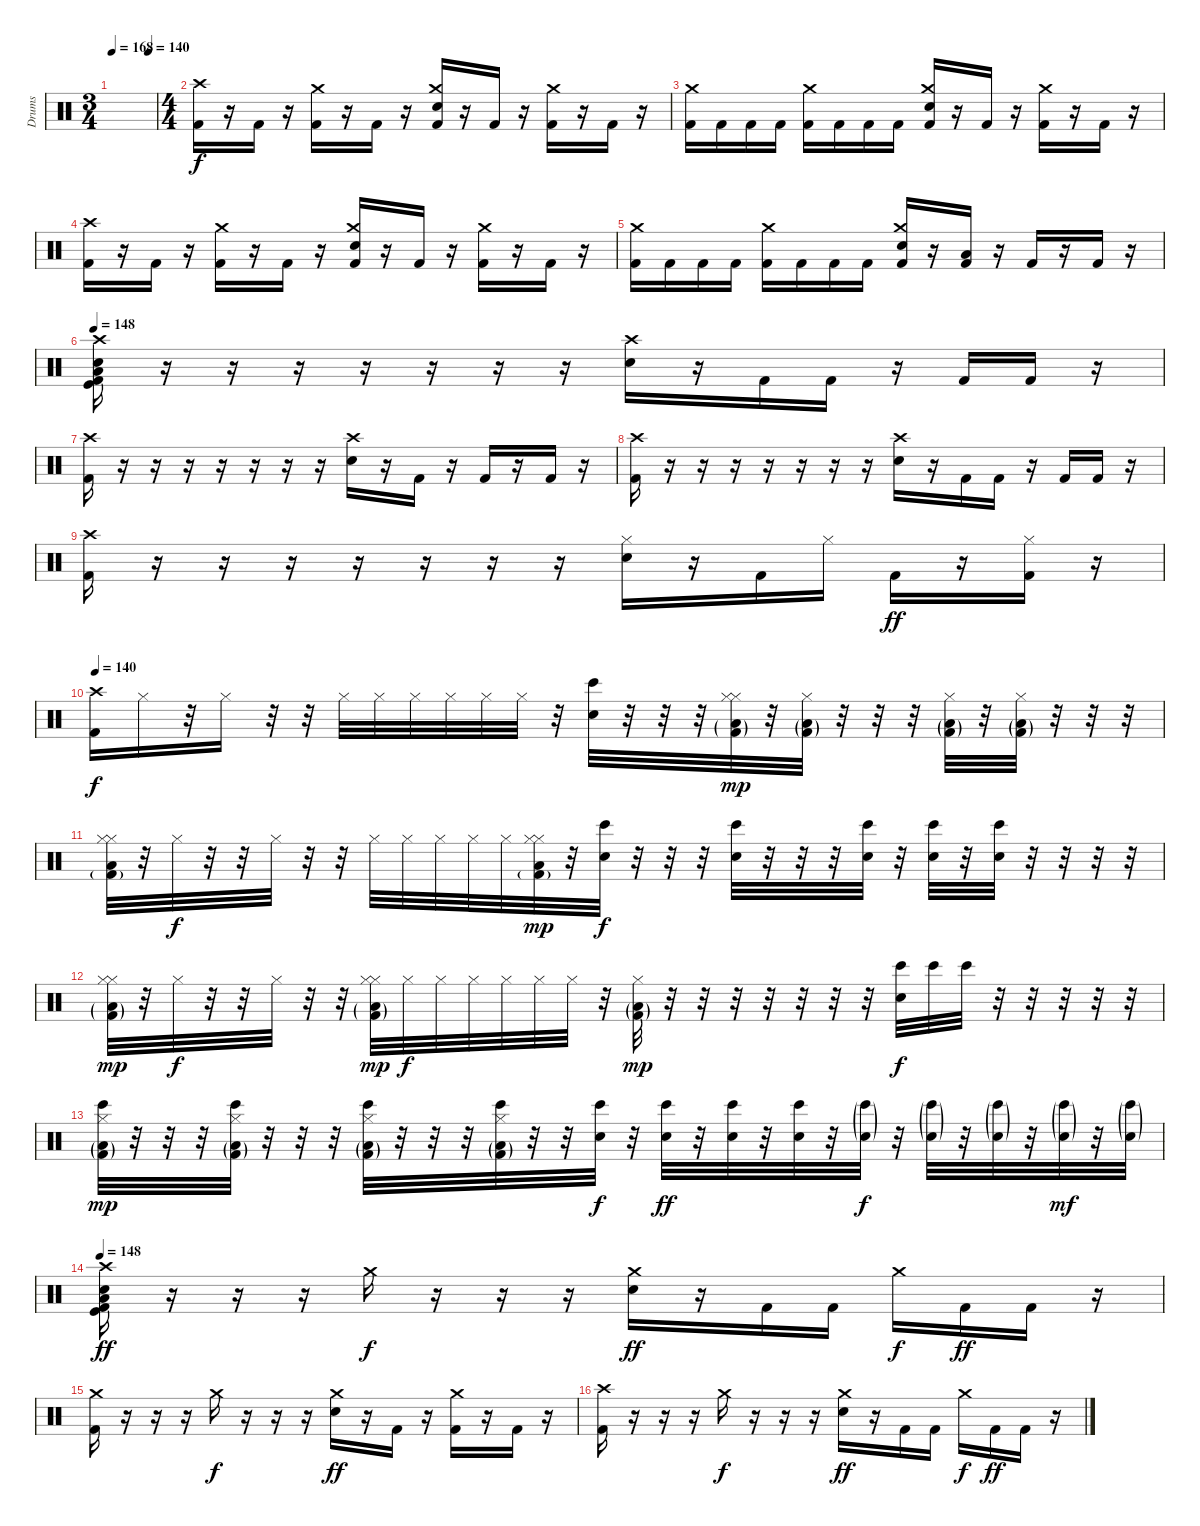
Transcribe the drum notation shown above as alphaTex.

\track ("Drums" "Drums") {instrument percussion}
\staff {score}
\articulation defaults
\ts (3 4)
\tempo 168
\tempo (140 0.8333333333333334)
\clef neutral
\ks c
|
\ts (4 4)
("Crash high (hit)" "Kick (hit) 2").16 r.16 "Kick (hit) 2".16 r.16 ("Crash medium (hit)" "Kick (hit) 2").16 r.16 "Kick (hit) 2".16 r.16 ("Crash medium (hit)" "Electric Snare (hit)" "Kick (hit) 2").16 r.16 "Kick (hit) 2".16 r.16 ("Crash medium (hit)" "Kick (hit) 2").16 r.16 "Kick (hit) 2".16 r.16 |
("Crash medium (hit)" "Kick (hit) 2").16 "Kick (hit) 2".16 "Kick (hit) 2".16 "Kick (hit) 2".16 ("Crash medium (hit)" "Kick (hit) 2").16 "Kick (hit) 2".16 "Kick (hit) 2".16 "Kick (hit) 2".16 ("Crash medium (hit)" "Electric Snare (hit)" "Kick (hit) 2").16 r.16 "Kick (hit) 2".16 r.16 ("Crash medium (hit)" "Kick (hit) 2").16 r.16 "Kick (hit) 2".16 r.16 |
("Crash high (hit)" "Kick (hit) 2").16 r.16 "Kick (hit) 2".16 r.16 ("Crash medium (hit)" "Kick (hit) 2").16 r.16 "Kick (hit) 2".16 r.16 ("Crash medium (hit)" "Electric Snare (hit)" "Kick (hit) 2").16 r.16 "Kick (hit) 2".16 r.16 ("Crash medium (hit)" "Kick (hit) 2").16 r.16 "Kick (hit) 2".16 r.16 |
("Crash medium (hit)" "Kick (hit) 2").16 "Kick (hit) 2".16 "Kick (hit) 2".16 "Kick (hit) 2".16 ("Crash medium (hit)" "Kick (hit) 2").16 "Kick (hit) 2".16 "Kick (hit) 2".16 "Kick (hit) 2".16 ("Crash medium (hit)" "Electric Snare (hit)" "Kick (hit) 2").16 r.16 ("Low Tom (hit)" "Kick (hit) 2").16 r.16 "Kick (hit) 2".16 r.16 "Kick (hit) 2".16 r.16 |
\tempo 148
("Snare (hit)" "Kick (hit)" "Crash high (hit)" "Low Floor Tom (hit)" "Kick (hit) 2").16 r.16 r.16 r.16 r.16 r.16 r.16 r.16 ("Crash high (hit)" "Electric Snare (hit)").16 r.16 "Kick (hit) 2".16 "Kick (hit) 2".16 r.16 "Kick (hit) 2".16 "Kick (hit) 2".16 r.16 |
("Crash high (hit)" "Kick (hit) 2").16 r.16 r.16 r.16 r.16 r.16 r.16 r.16 ("Crash high (hit)" "Electric Snare (hit)").16 r.16 "Kick (hit) 2".16 r.16 "Kick (hit) 2".16 r.16 "Kick (hit) 2".16 r.16 |
("Crash high (hit)" "Kick (hit) 2").16 r.16 r.16 r.16 r.16 r.16 r.16 r.16 ("Crash high (hit)" "Electric Snare (hit)").16 r.16 "Kick (hit) 2".16 "Kick (hit) 2".16 r.16 "Kick (hit) 2".16 "Kick (hit) 2".16 r.16 |
("Crash high (hit)" "Kick (hit) 2").16 r.16 r.16 r.16 r.16 r.16 r.16 r.16 ("Hi-Hat (closed)" "Electric Snare (hit)").16 r.16 "Kick (hit) 2".16 "Hi-Hat (closed)".16{dy f} "Kick (hit) 2".16{dy ff} r.16 ("Hi-Hat (closed)" "Kick (hit) 2").16 r.16 |
\tempo 140
("Crash high (hit)" "Kick (hit) 2").16{dy f} "Hi-Hat (closed)".16 r.32 "Hi-Hat (closed)".16 r.32 r.32 "Hi-Hat (closed)".32 "Hi-Hat (closed)".32 "Hi-Hat (closed)".32 "Hi-Hat (closed)".32 "Hi-Hat (closed)".32 "Hi-Hat (closed)".32 r.32 ("Bongo High (hit)" "Electric Snare (hit)").32 r.32 r.32 r.32 ("Low Floor Tom (hit)"{g} "Hi-Hat (closed)" "Hi-Hat (closed)" "Kick (hit) 2"{g}).32{dy mp} r.32 ("Low Floor Tom (hit)"{g} "Hi-Hat (closed)" "Kick (hit) 2"{g}).32 r.32 r.32 r.32 ("Low Floor Tom (hit)"{g} "Hi-Hat (closed)" "Kick (hit) 2"{g}).32 r.32 ("Low Floor Tom (hit)"{g} "Hi-Hat (closed)" "Kick (hit) 2"{g}).32 r.32 r.32 r.32 |
("Low Floor Tom (hit)" "Hi-Hat (closed)" "Hi-Hat (closed)" "Kick (hit) 2"{g}).32 r.32 "Hi-Hat (closed)".32{dy f} r.32 r.32 "Hi-Hat (closed)".32 r.32 r.32 "Hi-Hat (closed)".32 "Hi-Hat (closed)".32 "Hi-Hat (closed)".32 "Hi-Hat (closed)".32 "Hi-Hat (closed)".32 ("Low Floor Tom (hit)" "Hi-Hat (closed)" "Hi-Hat (closed)" "Kick (hit) 2"{g}).32{dy mp} r.32 ("Bongo High (hit)" "Electric Snare (hit)").32{dy f} r.32 r.32 r.32 ("Bongo High (hit)" "Electric Snare (hit)").32 r.32 r.32 r.32 ("Bongo High (hit)" "Electric Snare (hit)").32 r.32 ("Bongo High (hit)" "Electric Snare (hit)").32 r.32 ("Bongo High (hit)" "Electric Snare (hit)").32 r.32 r.32 r.32 r.32 |
("Low Floor Tom (hit)"{g} "Hi-Hat (closed)" "Hi-Hat (closed)" "Kick (hit) 2"{g}).32{dy mp} r.32 "Hi-Hat (closed)".32{dy f} r.32 r.32 "Hi-Hat (closed)".32 r.32 r.32 ("Low Floor Tom (hit)"{g} "Hi-Hat (closed)" "Hi-Hat (closed)" "Kick (hit) 2"{g}).32{dy mp} "Hi-Hat (closed)".32{dy f} "Hi-Hat (closed)".32 "Hi-Hat (closed)".32 "Hi-Hat (closed)".32 "Hi-Hat (closed)".32 "Hi-Hat (closed)".32 r.32 ("Low Floor Tom (hit)"{g} "Hi-Hat (closed)" "Kick (hit) 2"{g}).32{dy mp} r.32 r.32 r.32 r.32 r.32 r.32 r.32 ("Bongo High (hit)" "Electric Snare (hit)").32{dy f} "Bongo High (hit)".32 "Bongo High (hit)".32 r.32 r.32 r.32 r.32 r.32 |
("Low Floor Tom (hit)"{g} "Bongo High (hit)" "Hi-Hat (closed)" "Kick (hit) 2"{g}).32{dy mp} r.32 r.32 r.32 ("Low Floor Tom (hit)"{g} "Bongo High (hit)" "Hi-Hat (closed)" "Kick (hit) 2"{g}).32 r.32 r.32 r.32 ("Low Floor Tom (hit)"{g} "Bongo High (hit)" "Hi-Hat (closed)" "Kick (hit) 2"{g}).32 r.32 r.32 r.32 ("Low Floor Tom (hit)"{g} "Bongo High (hit)" "Hi-Hat (closed)" "Kick (hit) 2"{g}).32 r.32 r.32 ("Bongo High (hit)" "Electric Snare (hit)").32{dy f} r.32 ("Bongo High (hit)" "Electric Snare (hit)").32{dy ff} r.32 ("Bongo High (hit)" "Electric Snare (hit)").32 r.32 ("Bongo High (hit)" "Electric Snare (hit)").32 r.32 ("Bongo High (hit)"{g} "Electric Snare (hit)"{g}).32{dy f} r.32 ("Bongo High (hit)"{g} "Electric Snare (hit)"{g}).32 r.32 ("Bongo High (hit)"{g} "Electric Snare (hit)"{g}).32 r.32 ("Bongo High (hit)"{g} "Electric Snare (hit)"{g}).32{dy mf} r.32 ("Bongo High (hit)"{g} "Electric Snare (hit)"{g}).32 |
\tempo 148
("Snare (hit)" "Kick (hit)" "Crash high (hit)" "Low Floor Tom (hit)" "Kick (hit) 2").16{dy ff} r.16 r.16 r.16 "Crash medium (hit)".16{dy f} r.16 r.16 r.16 ("Crash medium (hit)" "Electric Snare (hit)").16{dy ff} r.16 "Kick (hit) 2".16 "Kick (hit) 2".16 "Crash medium (hit)".16{dy f} "Kick (hit) 2".16{dy ff} "Kick (hit) 2".16 r.16 |
("Crash medium (hit)" "Kick (hit) 2").16 r.16 r.16 r.16 "Crash medium (hit)".16{dy f} r.16 r.16 r.16 ("Crash medium (hit)" "Electric Snare (hit)").16{dy ff} r.16 "Kick (hit) 2".16 r.16 ("Crash medium (hit)" "Kick (hit) 2").16 r.16 "Kick (hit) 2".16 r.16 |
("Crash high (hit)" "Kick (hit) 2").16 r.16 r.16 r.16 "Crash medium (hit)".16{dy f} r.16 r.16 r.16 ("Crash medium (hit)" "Electric Snare (hit)").16{dy ff} r.16 "Kick (hit) 2".16 "Kick (hit) 2".16 "Crash medium (hit)".16{dy f} "Kick (hit) 2".16{dy ff} "Kick (hit) 2".16 r.16
